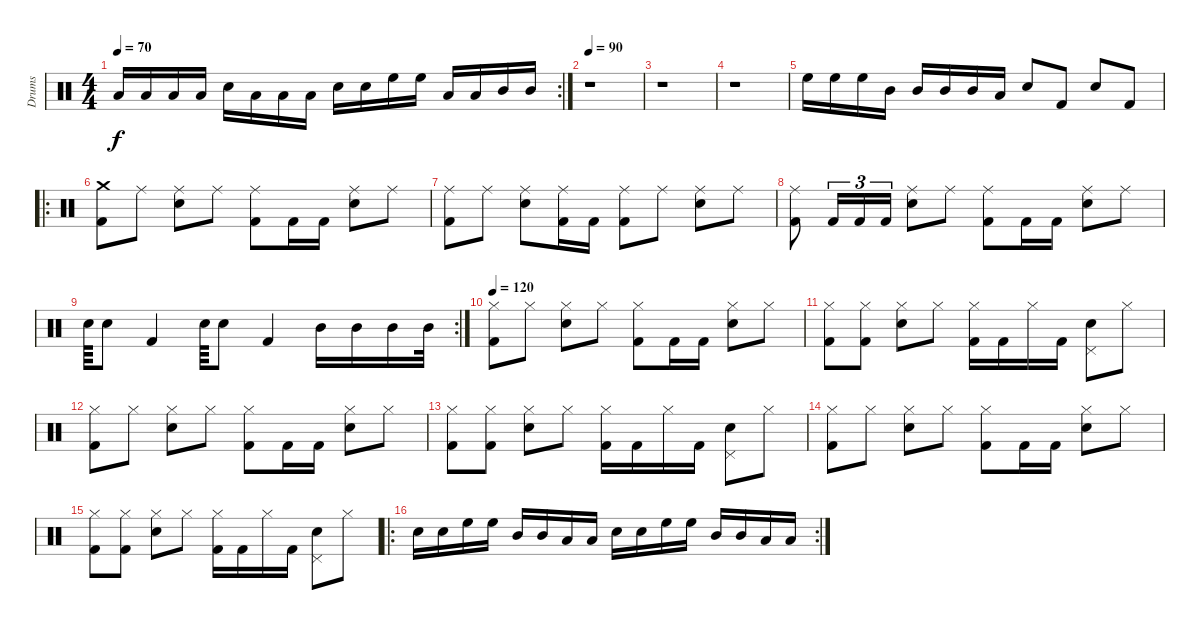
\track ("Drums" "Drums") {instrument percussion}
\staff {score}
\articulation defaults
\rc 2
\ts (4 4)
\tempo 70
\clef neutral
\ks c "Low Tom (hit)".16{dy f} "Low Tom (hit)".16 "Low Tom (hit)".16 "Low Tom (hit)".16 "Snare (hit) 2".16 "Low Tom (hit)".16 "Low Tom (hit)".16 "Low Tom (hit)".16 "Snare (hit) 2".16 "Snare (hit) 2".16 "High Floor Tom (hit)".16 "High Floor Tom (hit)".16 "Low Tom (hit)".16 "Low Tom (hit)".16 "Mid Tom (hit)".16 "Mid Tom (hit)".16
|
\tempo 90
r.1 |
r.1 |
r.1 |
"High Floor Tom (hit)".16 "High Floor Tom (hit)".16 "High Floor Tom (hit)".16 "Mid Tom (hit)".16 "Mid Tom (hit)".16 "Mid Tom (hit)".16 "Mid Tom (hit)".16 "Low Tom (hit)".16 "Snare (hit) 2".8 "Kick (hit) 2".8 "Snare (hit) 2".8 "Kick (hit) 2".8 |
\ro
("Crash medium (hit)" "Kick (hit) 2").8 "Ride (middle)".8 ("Ride (middle)" "Snare (hit) 2").8 "Ride (middle)".8 ("Ride (middle)" "Kick (hit) 2").8 "Kick (hit) 2".16 "Kick (hit) 2".16 ("Ride (middle)" "Snare (hit) 2").8 "Ride (middle)".8 |
("Ride (middle)" "Kick (hit) 2").8 "Ride (middle)".8 ("Snare (hit) 2" "Ride (middle)").8 ("Kick (hit) 2" "Ride (middle)").16 "Kick (hit) 2".16 ("Kick (hit) 2" "Ride (middle)").8 "Ride (middle)".8 ("Ride (middle)" "Snare (hit) 2").8 "Ride (middle)".8 |
("Ride (middle)" "Kick (hit) 2").8 "Kick (hit) 2".16{tu (3 2)} "Kick (hit) 2".16{tu (3 2)} "Kick (hit) 2".16{tu (3 2)} ("Ride (middle)" "Snare (hit) 2").8 "Ride (middle)".8 ("Ride (middle)" "Kick (hit) 2").8 "Kick (hit) 2".16 "Kick (hit) 2".16 ("Ride (middle)" "Snare (hit) 2").8 "Ride (middle)".8 |
\rc 2 "Snare (hit) 2".64 "Snare (hit) 2".8 "Kick (hit) 2".4 "Snare (hit) 2".64 "Snare (hit) 2".8 "Kick (hit) 2".4 "Mid Tom (hit)".16 "Mid Tom (hit)".16 "Mid Tom (hit)".16 "Mid Tom (hit)".32
|
\tempo 120
("Hi-Hat (closed)" "Kick (hit) 2").8 "Hi-Hat (closed)".8 ("Hi-Hat (closed)" "Snare (hit) 2").8 "Hi-Hat (closed)".8 ("Hi-Hat (closed)" "Kick (hit) 2").8 "Kick (hit) 2".16 "Kick (hit) 2".16 ("Hi-Hat (closed)" "Snare (hit) 2").8 "Hi-Hat (closed)".8 |
("Hi-Hat (closed)" "Kick (hit) 2").8 ("Hi-Hat (closed)" "Kick (hit) 2").8 ("Hi-Hat (closed)" "Snare (hit) 2").8 "Hi-Hat (closed)".8 ("Hi-Hat (closed)" "Kick (hit) 2").16 "Kick (hit) 2".16 "Hi-Hat (closed)".16 "Kick (hit) 2".16 ("Snare (hit) 2" "Pedal Hi-Hat (hit)").8 "Hi-Hat (closed)".8 |
("Hi-Hat (closed)" "Kick (hit) 2").8 "Hi-Hat (closed)".8 ("Hi-Hat (closed)" "Snare (hit) 2").8 "Hi-Hat (closed)".8 ("Hi-Hat (closed)" "Kick (hit) 2").8 "Kick (hit) 2".16 "Kick (hit) 2".16 ("Hi-Hat (closed)" "Snare (hit) 2").8 "Hi-Hat (closed)".8 |
("Hi-Hat (closed)" "Kick (hit) 2").8 ("Hi-Hat (closed)" "Kick (hit) 2").8 ("Hi-Hat (closed)" "Snare (hit) 2").8 "Hi-Hat (closed)".8 ("Hi-Hat (closed)" "Kick (hit) 2").16 "Kick (hit) 2".16 "Hi-Hat (closed)".16 "Kick (hit) 2".16 ("Snare (hit) 2" "Pedal Hi-Hat (hit)").8 "Hi-Hat (closed)".8 |
("Hi-Hat (closed)" "Kick (hit) 2").8 "Hi-Hat (closed)".8 ("Hi-Hat (closed)" "Snare (hit) 2").8 "Hi-Hat (closed)".8 ("Hi-Hat (closed)" "Kick (hit) 2").8 "Kick (hit) 2".16 "Kick (hit) 2".16 ("Hi-Hat (closed)" "Snare (hit) 2").8 "Hi-Hat (closed)".8 |
("Hi-Hat (closed)" "Kick (hit) 2").8 ("Hi-Hat (closed)" "Kick (hit) 2").8 ("Hi-Hat (closed)" "Snare (hit) 2").8 "Hi-Hat (closed)".8 ("Hi-Hat (closed)" "Kick (hit) 2").16 "Kick (hit) 2".16 "Hi-Hat (closed)".16 "Kick (hit) 2".16 ("Snare (hit) 2" "Pedal Hi-Hat (hit)").8 "Hi-Hat (closed)".8 |
\ro
\rc 2 "Snare (hit) 2".16 "Snare (hit) 2".16 "High Floor Tom (hit)".16 "High Floor Tom (hit)".16 "Mid Tom (hit)".16 "Mid Tom (hit)".16 "Low Tom (hit)".16 "Low Tom (hit)".16 "Snare (hit) 2".16 "Snare (hit) 2".16 "High Floor Tom (hit)".16 "High Floor Tom (hit)".16 "Mid Tom (hit)".16 "Mid Tom (hit)".16 "Low Tom (hit)".16 "Low Tom (hit)".16
